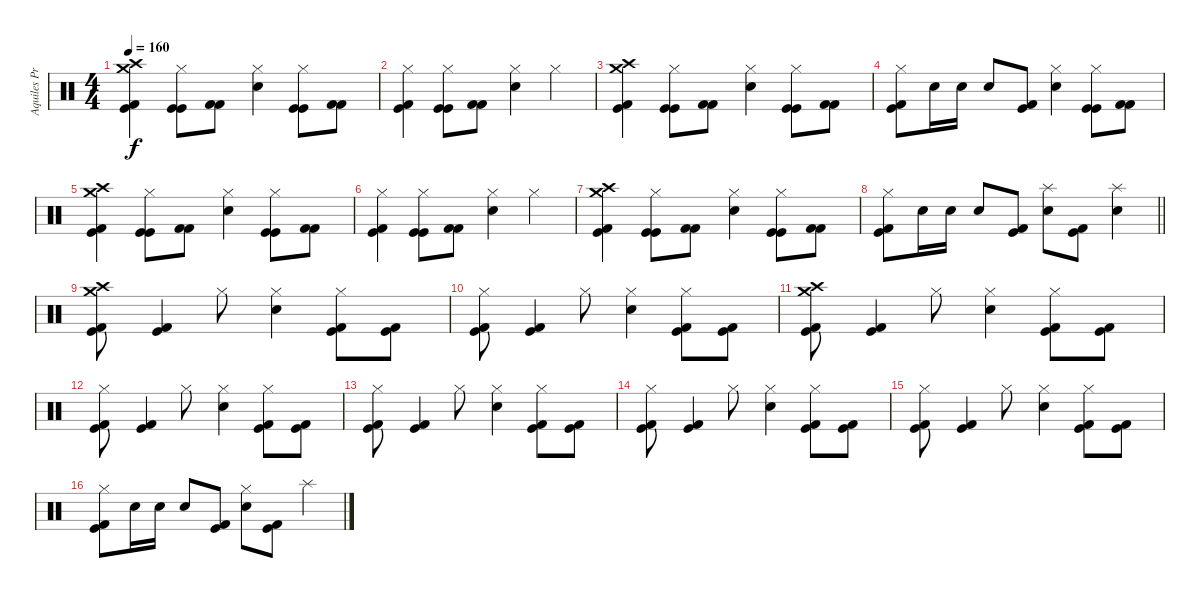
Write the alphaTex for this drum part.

\track ("Aquiles Priester" "Aquiles Pr") {instrument percussion}
\staff {score}
\articulation defaults
\ts (4 4)
\tempo 160
\clef neutral
\ks c
("Crash medium (hit)" "Crash high (hit)" "Kick (hit) 2" "Kick (hit)").4{dy f} ("Hi-Hat (closed)" "Kick (hit)" "Kick (hit)").8 ("Kick (hit) 2" "Kick (hit) 2").8 ("Hi-Hat (closed)" "Electric Snare (hit)").4 ("Hi-Hat (closed)" "Kick (hit)" "Kick (hit)").8 ("Kick (hit) 2" "Kick (hit) 2").8 |
("Hi-Hat (closed)" "Kick (hit)" "Kick (hit) 2").4 ("Hi-Hat (closed)" "Kick (hit)" "Kick (hit)").8 ("Kick (hit) 2" "Kick (hit) 2").8 ("Hi-Hat (closed)" "Electric Snare (hit)").4 "Hi-Hat (closed)".4 |
("Crash medium (hit)" "Crash high (hit)" "Kick (hit) 2" "Kick (hit)").4 ("Hi-Hat (closed)" "Kick (hit)" "Kick (hit)").8 ("Kick (hit) 2" "Kick (hit) 2").8 ("Hi-Hat (closed)" "Electric Snare (hit)").4 ("Hi-Hat (closed)" "Kick (hit)" "Kick (hit)").8 ("Kick (hit) 2" "Kick (hit) 2").8 |
("Hi-Hat (closed)" "Kick (hit) 2" "Kick (hit)").8 "Electric Snare (hit)".16 "Electric Snare (hit)".16 "Electric Snare (hit)".8 ("Kick (hit)" "Kick (hit) 2").8 ("Hi-Hat (closed)" "Electric Snare (hit)").4 ("Hi-Hat (closed)" "Kick (hit)" "Kick (hit)").8 ("Kick (hit) 2" "Kick (hit) 2").8 |
("Crash medium (hit)" "Crash high (hit)" "Kick (hit) 2" "Kick (hit)").4 ("Hi-Hat (closed)" "Kick (hit)" "Kick (hit)").8 ("Kick (hit) 2" "Kick (hit) 2").8 ("Hi-Hat (closed)" "Electric Snare (hit)").4 ("Hi-Hat (closed)" "Kick (hit)" "Kick (hit)").8 ("Kick (hit) 2" "Kick (hit) 2").8 |
("Hi-Hat (closed)" "Kick (hit)" "Kick (hit) 2").4 ("Hi-Hat (closed)" "Kick (hit)" "Kick (hit)").8 ("Kick (hit) 2" "Kick (hit) 2").8 ("Hi-Hat (closed)" "Electric Snare (hit)").4 "Hi-Hat (closed)".4 |
("Crash medium (hit)" "Crash high (hit)" "Kick (hit) 2" "Kick (hit)").4 ("Hi-Hat (closed)" "Kick (hit)" "Kick (hit)").8 ("Kick (hit) 2" "Kick (hit) 2").8 ("Hi-Hat (closed)" "Electric Snare (hit)").4 ("Hi-Hat (closed)" "Kick (hit)" "Kick (hit)").8 ("Kick (hit) 2" "Kick (hit) 2").8 |
\barLineRight lightlight
("Hi-Hat (closed)" "Kick (hit) 2" "Kick (hit)").8 "Electric Snare (hit)".16 "Electric Snare (hit)".16 "Electric Snare (hit)".8 ("Kick (hit) 2" "Kick (hit)").8 ("Splash (hit)" "Electric Snare (hit)").8 ("Kick (hit)" "Kick (hit) 2").8 ("Splash (hit)" "Electric Snare (hit)").4 |
("Crash medium (hit)" "Crash high (hit)" "Kick (hit) 2" "Kick (hit)").8 ("Kick (hit)" "Kick (hit) 2").4 "Hi-Hat (closed)".8 ("Hi-Hat (closed)" "Electric Snare (hit)").4 ("Hi-Hat (closed)" "Kick (hit) 2" "Kick (hit)").8 ("Kick (hit)" "Kick (hit) 2").8 |
("Hi-Hat (closed)" "Kick (hit) 2" "Kick (hit)").8 ("Kick (hit)" "Kick (hit) 2").4 "Hi-Hat (closed)".8 ("Hi-Hat (closed)" "Electric Snare (hit)").4 ("Hi-Hat (closed)" "Kick (hit) 2" "Kick (hit)").8 ("Kick (hit)" "Kick (hit) 2").8 |
("Crash medium (hit)" "Crash high (hit)" "Kick (hit) 2" "Kick (hit)").8 ("Kick (hit)" "Kick (hit) 2").4 "Hi-Hat (closed)".8 ("Hi-Hat (closed)" "Electric Snare (hit)").4 ("Hi-Hat (closed)" "Kick (hit) 2" "Kick (hit)").8 ("Kick (hit)" "Kick (hit) 2").8 |
("Hi-Hat (closed)" "Kick (hit) 2" "Kick (hit)").8 ("Kick (hit)" "Kick (hit) 2").4 "Hi-Hat (closed)".8 ("Hi-Hat (closed)" "Electric Snare (hit)").4 ("Hi-Hat (closed)" "Kick (hit) 2" "Kick (hit)").8 ("Kick (hit)" "Kick (hit) 2").8 |
("Hi-Hat (closed)" "Kick (hit) 2" "Kick (hit)").8 ("Kick (hit)" "Kick (hit) 2").4 "Hi-Hat (closed)".8 ("Hi-Hat (closed)" "Electric Snare (hit)").4 ("Hi-Hat (closed)" "Kick (hit) 2" "Kick (hit)").8 ("Kick (hit)" "Kick (hit) 2").8 |
("Hi-Hat (closed)" "Kick (hit) 2" "Kick (hit)").8 ("Kick (hit)" "Kick (hit) 2").4 "Hi-Hat (closed)".8 ("Hi-Hat (closed)" "Electric Snare (hit)").4 ("Hi-Hat (closed)" "Kick (hit) 2" "Kick (hit)").8 ("Kick (hit)" "Kick (hit) 2").8 |
("Hi-Hat (closed)" "Kick (hit) 2" "Kick (hit)").8 ("Kick (hit)" "Kick (hit) 2").4 "Hi-Hat (closed)".8 ("Hi-Hat (closed)" "Electric Snare (hit)").4 ("Hi-Hat (closed)" "Kick (hit) 2" "Kick (hit)").8 ("Kick (hit)" "Kick (hit) 2").8 |
("Hi-Hat (closed)" "Kick (hit) 2" "Kick (hit)").8 "Electric Snare (hit)".16 "Electric Snare (hit)".16 "Electric Snare (hit)".8 ("Kick (hit)" "Kick (hit) 2").8 ("Hi-Hat (closed)" "Electric Snare (hit)").8 ("Kick (hit)" "Kick (hit) 2").8 "Splash (hit)".4
